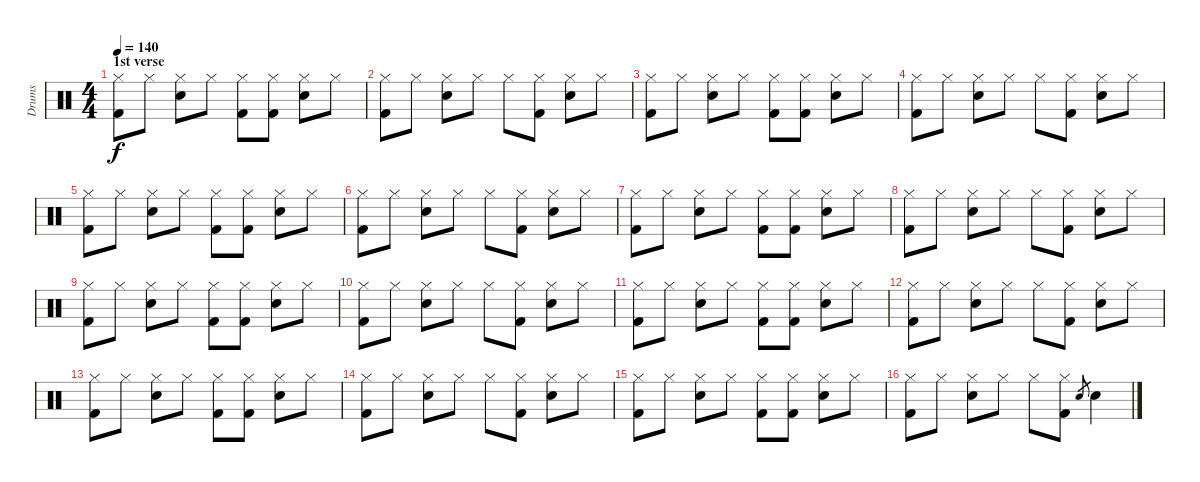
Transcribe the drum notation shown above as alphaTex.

\track ("Drums" "Drums") {instrument percussion}
\staff {score}
\articulation defaults
\ts (4 4)
\section ("" "1st verse")
\tempo 140
\clef neutral
\ks c
("Hi-Hat (closed)" "Kick (hit) 2").8{dy f} "Hi-Hat (closed)".8 ("Hi-Hat (closed)" "Electric Snare (hit)").8 "Hi-Hat (closed)".8 ("Hi-Hat (closed)" "Kick (hit) 2").8 ("Hi-Hat (closed)" "Kick (hit) 2").8 ("Hi-Hat (closed)" "Electric Snare (hit)").8 "Hi-Hat (closed)".8 |
("Hi-Hat (closed)" "Kick (hit) 2").8 "Hi-Hat (closed)".8 ("Hi-Hat (closed)" "Electric Snare (hit)").8 "Hi-Hat (closed)".8 "Hi-Hat (closed)".8 ("Hi-Hat (closed)" "Kick (hit) 2").8 ("Hi-Hat (closed)" "Electric Snare (hit)").8 "Hi-Hat (closed)".8 |
("Hi-Hat (closed)" "Kick (hit) 2").8 "Hi-Hat (closed)".8 ("Hi-Hat (closed)" "Electric Snare (hit)").8 "Hi-Hat (closed)".8 ("Hi-Hat (closed)" "Kick (hit) 2").8 ("Hi-Hat (closed)" "Kick (hit) 2").8 ("Hi-Hat (closed)" "Electric Snare (hit)").8 "Hi-Hat (closed)".8 |
("Hi-Hat (closed)" "Kick (hit) 2").8 "Hi-Hat (closed)".8 ("Hi-Hat (closed)" "Electric Snare (hit)").8 "Hi-Hat (closed)".8 "Hi-Hat (closed)".8 ("Hi-Hat (closed)" "Kick (hit) 2").8 ("Hi-Hat (closed)" "Electric Snare (hit)").8 "Hi-Hat (closed)".8 |
("Hi-Hat (closed)" "Kick (hit) 2").8 "Hi-Hat (closed)".8 ("Hi-Hat (closed)" "Electric Snare (hit)").8 "Hi-Hat (closed)".8 ("Hi-Hat (closed)" "Kick (hit) 2").8 ("Hi-Hat (closed)" "Kick (hit) 2").8 ("Hi-Hat (closed)" "Electric Snare (hit)").8 "Hi-Hat (closed)".8 |
("Hi-Hat (closed)" "Kick (hit) 2").8 "Hi-Hat (closed)".8 ("Hi-Hat (closed)" "Electric Snare (hit)").8 "Hi-Hat (closed)".8 "Hi-Hat (closed)".8 ("Hi-Hat (closed)" "Kick (hit) 2").8 ("Hi-Hat (closed)" "Electric Snare (hit)").8 "Hi-Hat (closed)".8 |
("Hi-Hat (closed)" "Kick (hit) 2").8 "Hi-Hat (closed)".8 ("Hi-Hat (closed)" "Electric Snare (hit)").8 "Hi-Hat (closed)".8 ("Hi-Hat (closed)" "Kick (hit) 2").8 ("Hi-Hat (closed)" "Kick (hit) 2").8 ("Hi-Hat (closed)" "Electric Snare (hit)").8 "Hi-Hat (closed)".8 |
("Hi-Hat (closed)" "Kick (hit) 2").8 "Hi-Hat (closed)".8 ("Hi-Hat (closed)" "Electric Snare (hit)").8 "Hi-Hat (closed)".8 "Hi-Hat (closed)".8 ("Hi-Hat (closed)" "Kick (hit) 2").8 ("Hi-Hat (closed)" "Electric Snare (hit)").8 "Hi-Hat (closed)".8 |
("Hi-Hat (closed)" "Kick (hit) 2").8 "Hi-Hat (closed)".8 ("Hi-Hat (closed)" "Electric Snare (hit)").8 "Hi-Hat (closed)".8 ("Hi-Hat (closed)" "Kick (hit) 2").8 ("Hi-Hat (closed)" "Kick (hit) 2").8 ("Hi-Hat (closed)" "Electric Snare (hit)").8 "Hi-Hat (closed)".8 |
("Hi-Hat (closed)" "Kick (hit) 2").8 "Hi-Hat (closed)".8 ("Hi-Hat (closed)" "Electric Snare (hit)").8 "Hi-Hat (closed)".8 "Hi-Hat (closed)".8 ("Hi-Hat (closed)" "Kick (hit) 2").8 ("Hi-Hat (closed)" "Electric Snare (hit)").8 "Hi-Hat (closed)".8 |
("Hi-Hat (closed)" "Kick (hit) 2").8 "Hi-Hat (closed)".8 ("Hi-Hat (closed)" "Electric Snare (hit)").8 "Hi-Hat (closed)".8 ("Hi-Hat (closed)" "Kick (hit) 2").8 ("Hi-Hat (closed)" "Kick (hit) 2").8 ("Hi-Hat (closed)" "Electric Snare (hit)").8 "Hi-Hat (closed)".8 |
("Hi-Hat (closed)" "Kick (hit) 2").8 "Hi-Hat (closed)".8 ("Hi-Hat (closed)" "Electric Snare (hit)").8 "Hi-Hat (closed)".8 "Hi-Hat (closed)".8 ("Hi-Hat (closed)" "Kick (hit) 2").8 ("Hi-Hat (closed)" "Electric Snare (hit)").8 "Hi-Hat (closed)".8 |
("Hi-Hat (closed)" "Kick (hit) 2").8 "Hi-Hat (closed)".8 ("Hi-Hat (closed)" "Electric Snare (hit)").8 "Hi-Hat (closed)".8 ("Hi-Hat (closed)" "Kick (hit) 2").8 ("Hi-Hat (closed)" "Kick (hit) 2").8 ("Hi-Hat (closed)" "Electric Snare (hit)").8 "Hi-Hat (closed)".8 |
("Hi-Hat (closed)" "Kick (hit) 2").8 "Hi-Hat (closed)".8 ("Hi-Hat (closed)" "Electric Snare (hit)").8 "Hi-Hat (closed)".8 "Hi-Hat (closed)".8 ("Hi-Hat (closed)" "Kick (hit) 2").8 ("Hi-Hat (closed)" "Electric Snare (hit)").8 "Hi-Hat (closed)".8 |
("Hi-Hat (closed)" "Kick (hit) 2").8 "Hi-Hat (closed)".8 ("Hi-Hat (closed)" "Electric Snare (hit)").8 "Hi-Hat (closed)".8 ("Hi-Hat (closed)" "Kick (hit) 2").8 ("Hi-Hat (closed)" "Kick (hit) 2").8 ("Hi-Hat (closed)" "Electric Snare (hit)").8 "Hi-Hat (closed)".8 |
("Hi-Hat (closed)" "Kick (hit) 2").8 "Hi-Hat (closed)".8 ("Hi-Hat (closed)" "Electric Snare (hit)").8 "Hi-Hat (closed)".8 "Hi-Hat (closed)".8 ("Hi-Hat (closed)" "Kick (hit) 2").8 "Electric Snare (hit)".8{gr} "Electric Snare (hit)".4
